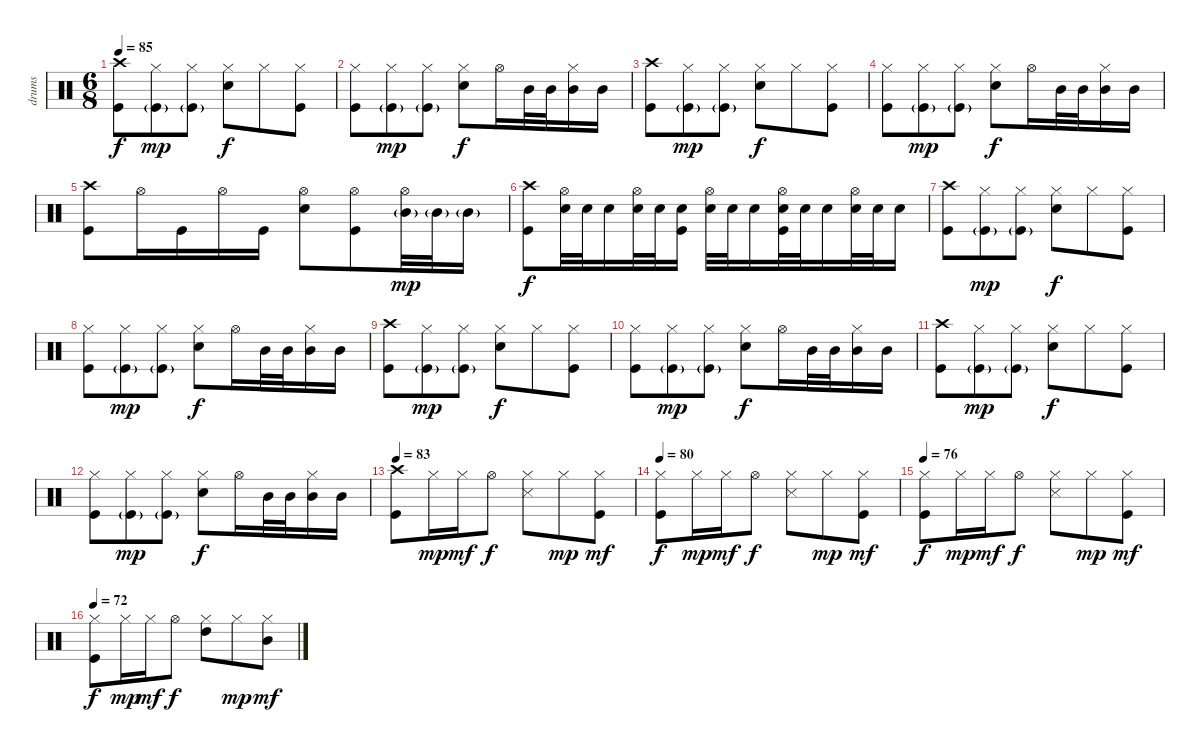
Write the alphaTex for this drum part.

\track ("drums" "drums") {instrument percussion}
\staff {score}
\articulation defaults
\ts (6 8)
\tempo 85
\clef neutral
\ks c
("Crash high (hit)" "Kick (hit)").8{dy f} ("Hi-Hat (closed)" "Kick (hit)"{g}).8{dy mp} ("Hi-Hat (closed)" "Kick (hit)"{g}).8 ("Hi-Hat (closed)" "Electric Snare (hit)").8{dy f} "Hi-Hat (closed)".8 ("Hi-Hat (closed)" "Kick (hit)").8 |
("Hi-Hat (closed)" "Kick (hit)").8 ("Hi-Hat (closed)" "Kick (hit)"{g}).8{dy mp} ("Hi-Hat (closed)" "Kick (hit)"{g}).8 ("Hi-Hat (closed)" "Electric Snare (hit)").8{dy f} "Hi-Hat (open)".16 "Mid Tom (hit)".32 "Mid Tom (hit)".32 ("Hi-Hat (closed)" "Mid Tom (hit)").16 "Mid Tom (hit)".16 |
("Crash high (hit)" "Kick (hit)").8 ("Hi-Hat (closed)" "Kick (hit)"{g}).8{dy mp} ("Hi-Hat (closed)" "Kick (hit)"{g}).8 ("Hi-Hat (closed)" "Electric Snare (hit)").8{dy f} "Hi-Hat (closed)".8 ("Hi-Hat (closed)" "Kick (hit)").8 |
("Hi-Hat (closed)" "Kick (hit)").8 ("Hi-Hat (closed)" "Kick (hit)"{g}).8{dy mp} ("Hi-Hat (closed)" "Kick (hit)"{g}).8 ("Hi-Hat (closed)" "Electric Snare (hit)").8{dy f} "Hi-Hat (open)".16 "Mid Tom (hit)".32 "Mid Tom (hit)".32 ("Hi-Hat (closed)" "Mid Tom (hit)").16 "Mid Tom (hit)".16 |
("Crash high (hit)" "Kick (hit)").8 "Hi-Hat (open)".16 "Kick (hit)".16 "Hi-Hat (open)".16 "Kick (hit)".16 ("Hi-Hat (open)" "Electric Snare (hit)").8 ("Hi-Hat (open)" "Kick (hit)").8 ("Hi-Hat (open)" "Mid Tom (hit)"{g}).32{dy mp} "Mid Tom (hit)"{g}.32 "Mid Tom (hit)"{g}.16 |
("Crash high (hit)" "Kick (hit)").8{dy f} ("Hi-Hat (open)" "Electric Snare (hit)").32 "Electric Snare (hit)".32 "Electric Snare (hit)".16 ("Hi-Hat (open)" "Electric Snare (hit)").32 "Electric Snare (hit)".32 ("Electric Snare (hit)" "Kick (hit)").16 ("Hi-Hat (open)" "Electric Snare (hit)").32 "Electric Snare (hit)".32 "Electric Snare (hit)".16 ("Hi-Hat (open)" "Electric Snare (hit)" "Kick (hit)").32 "Electric Snare (hit)".32 "Electric Snare (hit)".16 ("Hi-Hat (open)" "Electric Snare (hit)").32 "Electric Snare (hit)".32 "Electric Snare (hit)".16 |
("Crash high (hit)" "Kick (hit)").8 ("Hi-Hat (closed)" "Kick (hit)"{g}).8{dy mp} ("Hi-Hat (closed)" "Kick (hit)"{g}).8 ("Hi-Hat (closed)" "Electric Snare (hit)").8{dy f} "Hi-Hat (closed)".8 ("Hi-Hat (closed)" "Kick (hit)").8 |
("Hi-Hat (closed)" "Kick (hit)").8 ("Hi-Hat (closed)" "Kick (hit)"{g}).8{dy mp} ("Hi-Hat (closed)" "Kick (hit)"{g}).8 ("Hi-Hat (closed)" "Electric Snare (hit)").8{dy f} "Hi-Hat (open)".16 "Mid Tom (hit)".32 "Mid Tom (hit)".32 ("Hi-Hat (closed)" "Mid Tom (hit)").16 "Mid Tom (hit)".16 |
("Crash high (hit)" "Kick (hit)").8 ("Hi-Hat (closed)" "Kick (hit)"{g}).8{dy mp} ("Hi-Hat (closed)" "Kick (hit)"{g}).8 ("Hi-Hat (closed)" "Electric Snare (hit)").8{dy f} "Hi-Hat (closed)".8 ("Hi-Hat (closed)" "Kick (hit)").8 |
("Hi-Hat (closed)" "Kick (hit)").8 ("Hi-Hat (closed)" "Kick (hit)"{g}).8{dy mp} ("Hi-Hat (closed)" "Kick (hit)"{g}).8 ("Hi-Hat (closed)" "Electric Snare (hit)").8{dy f} "Hi-Hat (open)".16 "Mid Tom (hit)".32 "Mid Tom (hit)".32 ("Hi-Hat (closed)" "Mid Tom (hit)").16 "Mid Tom (hit)".16 |
("Crash high (hit)" "Kick (hit)").8 ("Hi-Hat (closed)" "Kick (hit)"{g}).8{dy mp} ("Hi-Hat (closed)" "Kick (hit)"{g}).8 ("Hi-Hat (closed)" "Electric Snare (hit)").8{dy f} "Hi-Hat (closed)".8 ("Hi-Hat (closed)" "Kick (hit)").8 |
("Hi-Hat (closed)" "Kick (hit)").8 ("Hi-Hat (closed)" "Kick (hit)"{g}).8{dy mp} ("Hi-Hat (closed)" "Kick (hit)"{g}).8 ("Hi-Hat (closed)" "Electric Snare (hit)").8{dy f} "Hi-Hat (open)".16 "Mid Tom (hit)".32 "Mid Tom (hit)".32 ("Hi-Hat (closed)" "Mid Tom (hit)").16 "Mid Tom (hit)".16 |
\tempo 83
("Crash high (hit)" "Kick (hit)").8 "Hi-Hat (closed)".16{dy mp} "Hi-Hat (closed)".16{dy mf} "Hi-Hat (open)".8{dy f} ("Hi-Hat (closed)" "Snare (side stick) 3").8 "Hi-Hat (closed)".8{dy mp} ("Hi-Hat (closed)" "Kick (hit)").8{dy mf} |
\tempo 80
("Hi-Hat (closed)" "Kick (hit)").8{dy f} "Hi-Hat (closed)".16{dy mp} "Hi-Hat (closed)".16{dy mf} "Hi-Hat (open)".8{dy f} ("Hi-Hat (closed)" "Snare (side stick) 3").8 "Hi-Hat (closed)".8{dy mp} ("Hi-Hat (closed)" "Kick (hit)").8{dy mf} |
\tempo 76
("Hi-Hat (closed)" "Kick (hit)").8{dy f} "Hi-Hat (closed)".16{dy mp} "Hi-Hat (closed)".16{dy mf} "Hi-Hat (open)".8{dy f} ("Hi-Hat (closed)" "Snare (side stick) 3").8 "Hi-Hat (closed)".8{dy mp} ("Hi-Hat (closed)" "Kick (hit)").8{dy mf} |
\tempo 72
("Hi-Hat (closed)" "Kick (hit)").8{dy f} "Hi-Hat (closed)".16{dy mp} "Hi-Hat (closed)".16{dy mf} "Hi-Hat (open)".8{dy f} ("Hi-Hat (closed)" "High Tom (hit)").8 "Hi-Hat (closed)".8{dy mp} ("Hi-Hat (closed)" "Mid Tom (hit)").8{dy mf}
